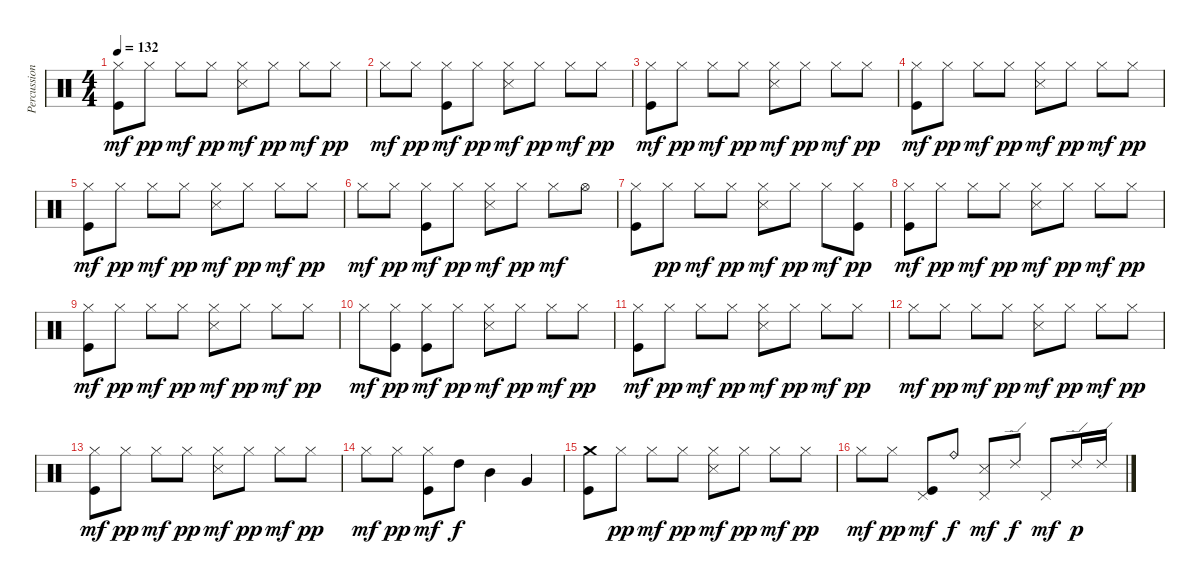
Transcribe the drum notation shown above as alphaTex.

\track ("Percussion" "Percussion") {instrument percussion}
\staff {score}
\articulation defaults
\ts (4 4)
\tempo 132
\clef neutral
\ks c
("Hi-Hat (closed)" "Kick (hit)").8{dy mf} "Hi-Hat (closed)".8{dy pp} "Hi-Hat (closed)".8{dy mf} "Hi-Hat (closed)".8{dy pp} ("Hi-Hat (closed)" "Snare (side stick) 3").8{dy mf} "Hi-Hat (closed)".8{dy pp} "Hi-Hat (closed)".8{dy mf} "Hi-Hat (closed)".8{dy pp} |
"Hi-Hat (closed)".8{dy mf} "Hi-Hat (closed)".8{dy pp} ("Hi-Hat (closed)" "Kick (hit)").8{dy mf} "Hi-Hat (closed)".8{dy pp} ("Hi-Hat (closed)" "Snare (side stick) 3").8{dy mf} "Hi-Hat (closed)".8{dy pp} "Hi-Hat (closed)".8{dy mf} "Hi-Hat (closed)".8{dy pp} |
("Hi-Hat (closed)" "Kick (hit)").8{dy mf} "Hi-Hat (closed)".8{dy pp} "Hi-Hat (closed)".8{dy mf} "Hi-Hat (closed)".8{dy pp} ("Hi-Hat (closed)" "Snare (side stick) 3").8{dy mf} "Hi-Hat (closed)".8{dy pp} "Hi-Hat (closed)".8{dy mf} "Hi-Hat (closed)".8{dy pp} |
("Hi-Hat (closed)" "Kick (hit)").8{dy mf} "Hi-Hat (closed)".8{dy pp} "Hi-Hat (closed)".8{dy mf} "Hi-Hat (closed)".8{dy pp} ("Hi-Hat (closed)" "Snare (side stick) 3").8{dy mf} "Hi-Hat (closed)".8{dy pp} "Hi-Hat (closed)".8{dy mf} "Hi-Hat (closed)".8{dy pp} |
("Hi-Hat (closed)" "Kick (hit)").8{dy mf} "Hi-Hat (closed)".8{dy pp} "Hi-Hat (closed)".8{dy mf} "Hi-Hat (closed)".8{dy pp} ("Hi-Hat (closed)" "Snare (side stick) 3").8{dy mf} "Hi-Hat (closed)".8{dy pp} "Hi-Hat (closed)".8{dy mf} "Hi-Hat (closed)".8{dy pp} |
"Hi-Hat (closed)".8{dy mf} "Hi-Hat (closed)".8{dy pp} ("Hi-Hat (closed)" "Kick (hit)").8{dy mf} "Hi-Hat (closed)".8{dy pp} ("Hi-Hat (closed)" "Snare (side stick) 3").8{dy mf} "Hi-Hat (closed)".8{dy pp} "Hi-Hat (closed)".8{dy mf} "Hi-Hat (open)".8 |
("Hi-Hat (closed)" "Kick (hit)").8 "Hi-Hat (closed)".8{dy pp} "Hi-Hat (closed)".8{dy mf} "Hi-Hat (closed)".8{dy pp} ("Hi-Hat (closed)" "Snare (side stick) 3").8{dy mf} "Hi-Hat (closed)".8{dy pp} "Hi-Hat (closed)".8{dy mf} ("Hi-Hat (closed)" "Kick (hit)").8{dy pp} |
("Hi-Hat (closed)" "Kick (hit)").8{dy mf} "Hi-Hat (closed)".8{dy pp} "Hi-Hat (closed)".8{dy mf} "Hi-Hat (closed)".8{dy pp} ("Hi-Hat (closed)" "Snare (side stick) 3").8{dy mf} "Hi-Hat (closed)".8{dy pp} "Hi-Hat (closed)".8{dy mf} "Hi-Hat (closed)".8{dy pp} |
("Hi-Hat (closed)" "Kick (hit)").8{dy mf} "Hi-Hat (closed)".8{dy pp} "Hi-Hat (closed)".8{dy mf} "Hi-Hat (closed)".8{dy pp} ("Hi-Hat (closed)" "Snare (side stick) 3").8{dy mf} "Hi-Hat (closed)".8{dy pp} "Hi-Hat (closed)".8{dy mf} "Hi-Hat (closed)".8{dy pp} |
"Hi-Hat (closed)".8{dy mf} ("Hi-Hat (closed)" "Kick (hit)").8{dy pp} ("Hi-Hat (closed)" "Kick (hit)").8{dy mf} "Hi-Hat (closed)".8{dy pp} ("Hi-Hat (closed)" "Snare (side stick) 3").8{dy mf} "Hi-Hat (closed)".8{dy pp} "Hi-Hat (closed)".8{dy mf} "Hi-Hat (closed)".8{dy pp} |
("Hi-Hat (closed)" "Kick (hit)").8{dy mf} "Hi-Hat (closed)".8{dy pp} "Hi-Hat (closed)".8{dy mf} "Hi-Hat (closed)".8{dy pp} ("Hi-Hat (closed)" "Snare (side stick) 3").8{dy mf} "Hi-Hat (closed)".8{dy pp} "Hi-Hat (closed)".8{dy mf} "Hi-Hat (closed)".8{dy pp} |
"Hi-Hat (closed)".8{dy mf} "Hi-Hat (closed)".8{dy pp} "Hi-Hat (closed)".8{dy mf} "Hi-Hat (closed)".8{dy pp} ("Hi-Hat (closed)" "Snare (side stick) 3").8{dy mf} "Hi-Hat (closed)".8{dy pp} "Hi-Hat (closed)".8{dy mf} "Hi-Hat (closed)".8{dy pp} |
("Hi-Hat (closed)" "Kick (hit)").8{dy mf} "Hi-Hat (closed)".8{dy pp} "Hi-Hat (closed)".8{dy mf} "Hi-Hat (closed)".8{dy pp} ("Hi-Hat (closed)" "Snare (side stick) 3").8{dy mf} "Hi-Hat (closed)".8{dy pp} "Hi-Hat (closed)".8{dy mf} "Hi-Hat (closed)".8{dy pp} |
"Hi-Hat (closed)".8{dy mf} "Hi-Hat (closed)".8{dy pp} ("Hi-Hat (closed)" "Kick (hit)").8{dy mf} "High Tom (hit)".8{dy f} "Mid Tom (hit)".4 "Very Low Tom (hit)".4 |
("Crash medium (hit)" "Kick (hit)").8 "Hi-Hat (closed)".8{dy pp} "Hi-Hat (closed)".8{dy mf} "Hi-Hat (closed)".8{dy pp} ("Hi-Hat (closed)" "Snare (side stick) 3").8{dy mf} "Hi-Hat (closed)".8{dy pp} "Hi-Hat (closed)".8{dy mf} "Hi-Hat (closed)".8{dy pp} |
"Hi-Hat (closed)".8{dy mf} "Hi-Hat (closed)".8{dy pp} ("Pedal Hi-Hat (hit)" "Kick (hit)").8{dy mf} "Ride (bell)".8{dy f} ("Pedal Hi-Hat (hit)" "Snare (side stick) 3").8{dy mf} "Ride (edge) 2".8{dy f} "Pedal Hi-Hat (hit)".8{dy mf} "Ride (edge) 2".16{dy p} "Ride (edge) 2".16
